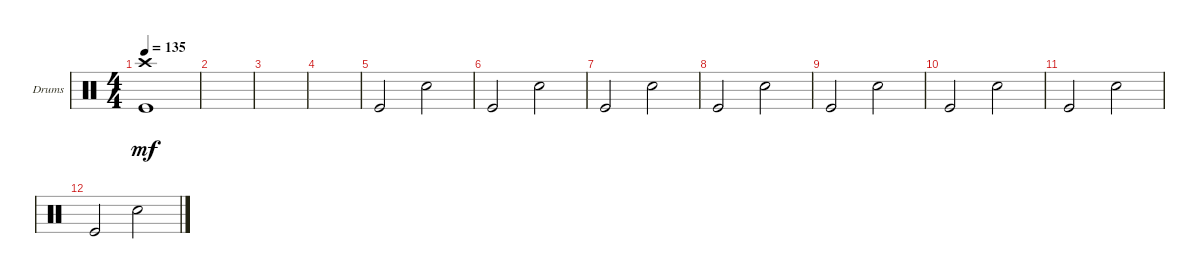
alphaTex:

\defaultSystemsLayout 4
\bracketExtendMode groupsimilarinstruments
\firstSystemTrackNameOrientation horizontal
\otherSystemsTrackNameOrientation horizontal
\track ("Drumkit" "Drums") {instrument percussion}
\staff {score}
\articulation defaults
\ts (4 4)
\tempo 135
\clef neutral
\ks c
("Kick (hit)" "Crash high (hit)").1{dy mf} |
|
|
|
"Kick (hit)".2 "Snare (hit) 2".2 |
"Kick (hit)".2 "Snare (hit) 2".2 |
"Kick (hit)".2 "Snare (hit) 2".2 |
"Kick (hit)".2 "Snare (hit) 2".2 |
"Kick (hit)".2 "Snare (hit) 2".2 |
"Kick (hit)".2 "Snare (hit) 2".2 |
"Kick (hit)".2 "Snare (hit) 2".2 |
"Kick (hit)".2 "Snare (hit) 2".2
